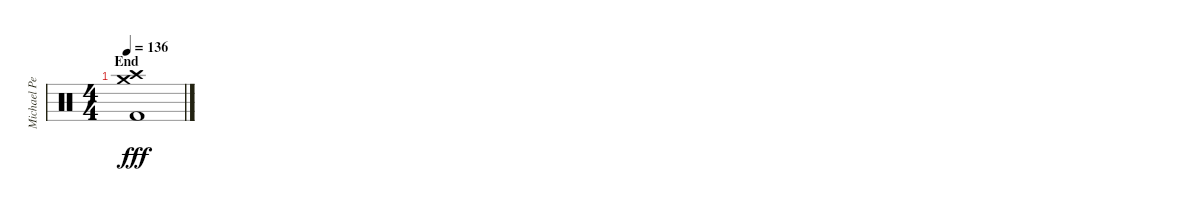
\track ("Michael Pedicone [Drums]" "Michael Pe") {instrument percussion}
\staff
\articulation defaults
\ts (4 4)
\section ("" "End")
\tempo 136
\clef neutral
\ks c
("Crash high (hit)" "Crash medium (hit)" "Kick (hit) 2").1{dy fff}
